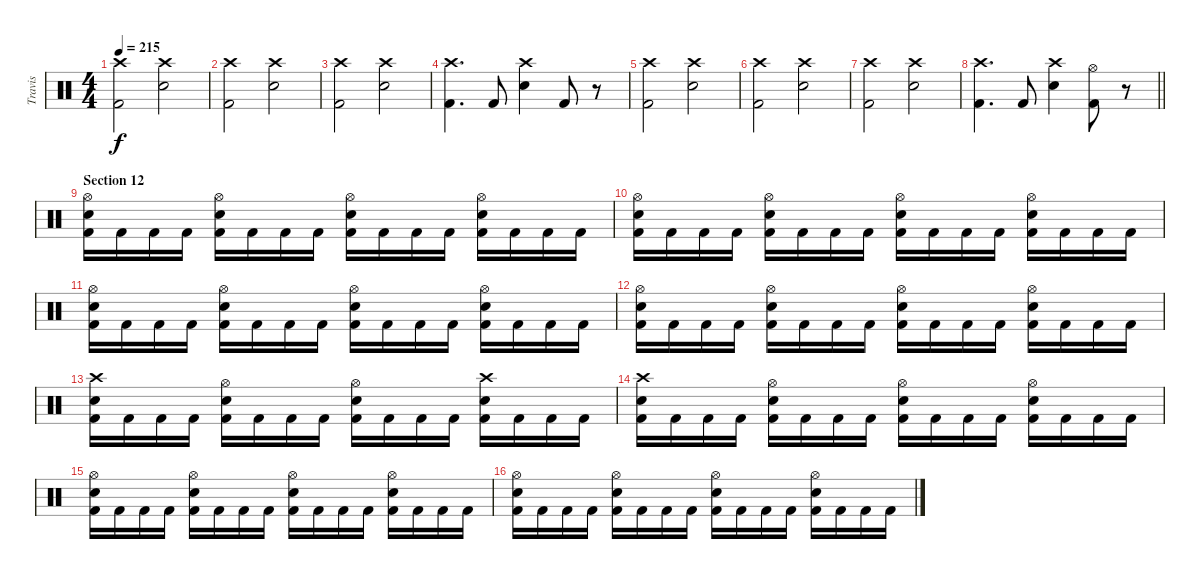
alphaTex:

\track ("Travis" "Travis") {instrument percussion}
\staff {score}
\articulation defaults
\ts (4 4)
\tempo 215
\clef neutral
\ks c
("Crash high (hit)" "Kick (hit) 2").2{dy f} ("Crash high (hit)" "Snare (hit) 2").2 |
("Crash high (hit)" "Kick (hit) 2").2 ("Crash high (hit)" "Snare (hit) 2").2 |
("Crash high (hit)" "Kick (hit) 2").2 ("Crash high (hit)" "Snare (hit) 2").2 |
("Crash high (hit)" "Kick (hit) 2").4{d} "Kick (hit) 2".8 ("Crash high (hit)" "Snare (hit) 2").4 "Kick (hit) 2".8 r.8 |
("Crash high (hit)" "Kick (hit) 2").2 ("Crash high (hit)" "Snare (hit) 2").2 |
("Crash high (hit)" "Kick (hit) 2").2 ("Crash high (hit)" "Snare (hit) 2").2 |
("Crash high (hit)" "Kick (hit) 2").2 ("Crash high (hit)" "Snare (hit) 2").2 |
\barLineRight lightlight
("Crash high (hit)" "Kick (hit) 2").4{d} "Kick (hit) 2".8 ("Crash high (hit)" "Snare (hit) 2").4 ("Hi-Hat (open)" "Kick (hit) 2").8 r.8 |
\section ("" "Section 12")
("Hi-Hat (open)" "Snare (hit) 2" "Kick (hit) 2").16 "Kick (hit) 2".16 "Kick (hit) 2".16 "Kick (hit) 2".16 ("Hi-Hat (open)" "Snare (hit) 2" "Kick (hit) 2").16 "Kick (hit) 2".16 "Kick (hit) 2".16 "Kick (hit) 2".16 ("Hi-Hat (open)" "Snare (hit) 2" "Kick (hit) 2").16 "Kick (hit) 2".16 "Kick (hit) 2".16 "Kick (hit) 2".16 ("Hi-Hat (open)" "Snare (hit) 2" "Kick (hit) 2").16 "Kick (hit) 2".16 "Kick (hit) 2".16 "Kick (hit) 2".16 |
("Hi-Hat (open)" "Snare (hit) 2" "Kick (hit) 2").16 "Kick (hit) 2".16 "Kick (hit) 2".16 "Kick (hit) 2".16 ("Hi-Hat (open)" "Snare (hit) 2" "Kick (hit) 2").16 "Kick (hit) 2".16 "Kick (hit) 2".16 "Kick (hit) 2".16 ("Hi-Hat (open)" "Snare (hit) 2" "Kick (hit) 2").16 "Kick (hit) 2".16 "Kick (hit) 2".16 "Kick (hit) 2".16 ("Hi-Hat (open)" "Snare (hit) 2" "Kick (hit) 2").16 "Kick (hit) 2".16 "Kick (hit) 2".16 "Kick (hit) 2".16 |
("Hi-Hat (open)" "Snare (hit) 2" "Kick (hit) 2").16 "Kick (hit) 2".16 "Kick (hit) 2".16 "Kick (hit) 2".16 ("Hi-Hat (open)" "Snare (hit) 2" "Kick (hit) 2").16 "Kick (hit) 2".16 "Kick (hit) 2".16 "Kick (hit) 2".16 ("Hi-Hat (open)" "Snare (hit) 2" "Kick (hit) 2").16 "Kick (hit) 2".16 "Kick (hit) 2".16 "Kick (hit) 2".16 ("Hi-Hat (open)" "Snare (hit) 2" "Kick (hit) 2").16 "Kick (hit) 2".16 "Kick (hit) 2".16 "Kick (hit) 2".16 |
("Hi-Hat (open)" "Snare (hit) 2" "Kick (hit) 2").16 "Kick (hit) 2".16 "Kick (hit) 2".16 "Kick (hit) 2".16 ("Hi-Hat (open)" "Snare (hit) 2" "Kick (hit) 2").16 "Kick (hit) 2".16 "Kick (hit) 2".16 "Kick (hit) 2".16 ("Hi-Hat (open)" "Snare (hit) 2" "Kick (hit) 2").16 "Kick (hit) 2".16 "Kick (hit) 2".16 "Kick (hit) 2".16 ("Hi-Hat (open)" "Snare (hit) 2" "Kick (hit) 2").16 "Kick (hit) 2".16 "Kick (hit) 2".16 "Kick (hit) 2".16 |
("Crash high (hit)" "Snare (hit) 2" "Kick (hit) 2").16 "Kick (hit) 2".16 "Kick (hit) 2".16 "Kick (hit) 2".16 ("Hi-Hat (open)" "Snare (hit) 2" "Kick (hit) 2").16 "Kick (hit) 2".16 "Kick (hit) 2".16 "Kick (hit) 2".16 ("Hi-Hat (open)" "Snare (hit) 2" "Kick (hit) 2").16 "Kick (hit) 2".16 "Kick (hit) 2".16 "Kick (hit) 2".16 ("Crash high (hit)" "Snare (hit) 2" "Kick (hit) 2").16 "Kick (hit) 2".16 "Kick (hit) 2".16 "Kick (hit) 2".16 |
("Crash high (hit)" "Snare (hit) 2" "Kick (hit) 2").16 "Kick (hit) 2".16 "Kick (hit) 2".16 "Kick (hit) 2".16 ("Hi-Hat (open)" "Snare (hit) 2" "Kick (hit) 2").16 "Kick (hit) 2".16 "Kick (hit) 2".16 "Kick (hit) 2".16 ("Hi-Hat (open)" "Snare (hit) 2" "Kick (hit) 2").16 "Kick (hit) 2".16 "Kick (hit) 2".16 "Kick (hit) 2".16 ("Hi-Hat (open)" "Snare (hit) 2" "Kick (hit) 2").16 "Kick (hit) 2".16 "Kick (hit) 2".16 "Kick (hit) 2".16 |
("Hi-Hat (open)" "Snare (hit) 2" "Kick (hit) 2").16 "Kick (hit) 2".16 "Kick (hit) 2".16 "Kick (hit) 2".16 ("Hi-Hat (open)" "Snare (hit) 2" "Kick (hit) 2").16 "Kick (hit) 2".16 "Kick (hit) 2".16 "Kick (hit) 2".16 ("Hi-Hat (open)" "Snare (hit) 2" "Kick (hit) 2").16 "Kick (hit) 2".16 "Kick (hit) 2".16 "Kick (hit) 2".16 ("Hi-Hat (open)" "Snare (hit) 2" "Kick (hit) 2").16 "Kick (hit) 2".16 "Kick (hit) 2".16 "Kick (hit) 2".16 |
("Hi-Hat (open)" "Snare (hit) 2" "Kick (hit) 2").16 "Kick (hit) 2".16 "Kick (hit) 2".16 "Kick (hit) 2".16 ("Hi-Hat (open)" "Snare (hit) 2" "Kick (hit) 2").16 "Kick (hit) 2".16 "Kick (hit) 2".16 "Kick (hit) 2".16 ("Hi-Hat (open)" "Snare (hit) 2" "Kick (hit) 2").16 "Kick (hit) 2".16 "Kick (hit) 2".16 "Kick (hit) 2".16 ("Hi-Hat (open)" "Snare (hit) 2" "Kick (hit) 2").16 "Kick (hit) 2".16 "Kick (hit) 2".16 "Kick (hit) 2".16
